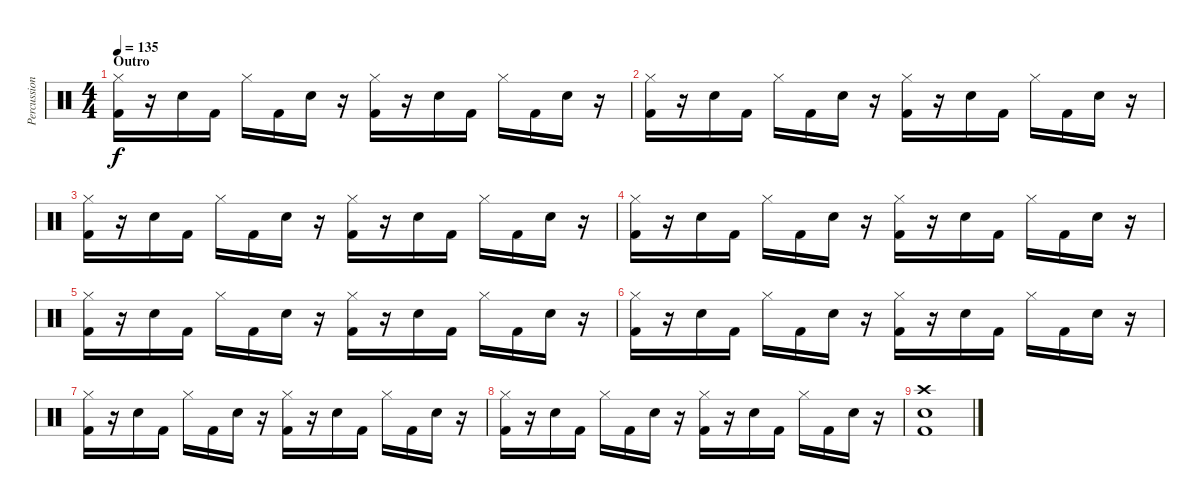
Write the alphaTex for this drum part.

\track ("Percussion" "Percussion") {instrument percussion}
\staff {score}
\articulation defaults
\ts (4 4)
\section ("" "Outro")
\tempo 135
\clef neutral
\ks c
("Hi-Hat (closed)" "Kick (hit) 2").16{dy f} r.16 "Snare (hit) 2".16 "Kick (hit) 2".16 "Hi-Hat (closed)".16 "Kick (hit) 2".16 "Snare (hit) 2".16 r.16 ("Hi-Hat (closed)" "Kick (hit) 2").16 r.16 "Snare (hit) 2".16 "Kick (hit) 2".16 "Hi-Hat (closed)".16 "Kick (hit) 2".16 "Snare (hit) 2".16 r.16 |
("Hi-Hat (closed)" "Kick (hit) 2").16 r.16 "Snare (hit) 2".16 "Kick (hit) 2".16 "Hi-Hat (closed)".16 "Kick (hit) 2".16 "Snare (hit) 2".16 r.16 ("Hi-Hat (closed)" "Kick (hit) 2").16 r.16 "Snare (hit) 2".16 "Kick (hit) 2".16 "Hi-Hat (closed)".16 "Kick (hit) 2".16 "Snare (hit) 2".16 r.16 |
("Hi-Hat (closed)" "Kick (hit) 2").16 r.16 "Snare (hit) 2".16 "Kick (hit) 2".16 "Hi-Hat (closed)".16 "Kick (hit) 2".16 "Snare (hit) 2".16 r.16 ("Hi-Hat (closed)" "Kick (hit) 2").16 r.16 "Snare (hit) 2".16 "Kick (hit) 2".16 "Hi-Hat (closed)".16 "Kick (hit) 2".16 "Snare (hit) 2".16 r.16 |
("Hi-Hat (closed)" "Kick (hit) 2").16 r.16 "Snare (hit) 2".16 "Kick (hit) 2".16 "Hi-Hat (closed)".16 "Kick (hit) 2".16 "Snare (hit) 2".16 r.16 ("Hi-Hat (closed)" "Kick (hit) 2").16 r.16 "Snare (hit) 2".16 "Kick (hit) 2".16 "Hi-Hat (closed)".16 "Kick (hit) 2".16 "Snare (hit) 2".16 r.16 |
("Hi-Hat (closed)" "Kick (hit) 2").16 r.16 "Snare (hit) 2".16 "Kick (hit) 2".16 "Hi-Hat (closed)".16 "Kick (hit) 2".16 "Snare (hit) 2".16 r.16 ("Hi-Hat (closed)" "Kick (hit) 2").16 r.16 "Snare (hit) 2".16 "Kick (hit) 2".16 "Hi-Hat (closed)".16 "Kick (hit) 2".16 "Snare (hit) 2".16 r.16 |
("Hi-Hat (closed)" "Kick (hit) 2").16 r.16 "Snare (hit) 2".16 "Kick (hit) 2".16 "Hi-Hat (closed)".16 "Kick (hit) 2".16 "Snare (hit) 2".16 r.16 ("Hi-Hat (closed)" "Kick (hit) 2").16 r.16 "Snare (hit) 2".16 "Kick (hit) 2".16 "Hi-Hat (closed)".16 "Kick (hit) 2".16 "Snare (hit) 2".16 r.16 |
("Hi-Hat (closed)" "Kick (hit) 2").16 r.16 "Snare (hit) 2".16 "Kick (hit) 2".16 "Hi-Hat (closed)".16 "Kick (hit) 2".16 "Snare (hit) 2".16 r.16 ("Hi-Hat (closed)" "Kick (hit) 2").16 r.16 "Snare (hit) 2".16 "Kick (hit) 2".16 "Hi-Hat (closed)".16 "Kick (hit) 2".16 "Snare (hit) 2".16 r.16 |
("Hi-Hat (closed)" "Kick (hit) 2").16 r.16 "Snare (hit) 2".16 "Kick (hit) 2".16 "Hi-Hat (closed)".16 "Kick (hit) 2".16 "Snare (hit) 2".16 r.16 ("Hi-Hat (closed)" "Kick (hit) 2").16 r.16 "Snare (hit) 2".16 "Kick (hit) 2".16 "Hi-Hat (closed)".16 "Kick (hit) 2".16 "Snare (hit) 2".16 r.16 |
("Crash high (hit)" "Snare (hit) 2" "Kick (hit) 2").1
